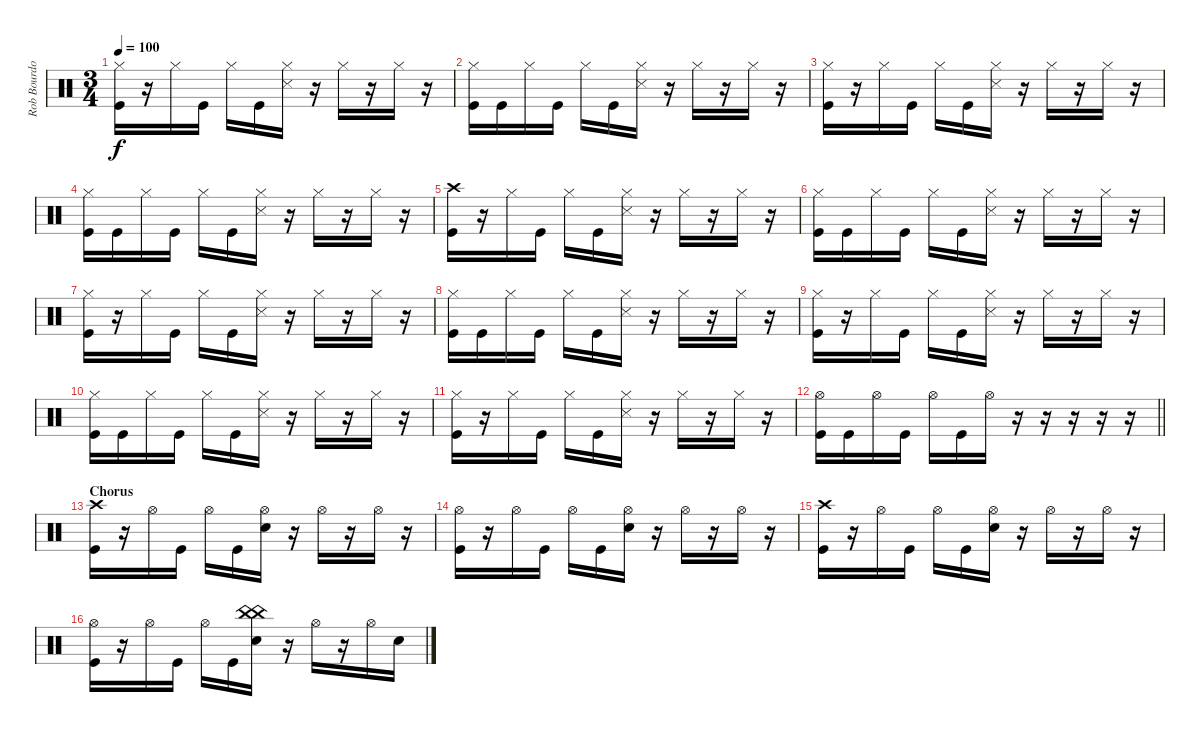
\track ("Rob Bourdon" "Rob Bourdo") {instrument percussion}
\staff {score}
\articulation defaults
\ts (3 4)
\tempo 100
\clef neutral
\ks c
("Hi-Hat (closed)" "Kick (hit)").16{dy f} r.16 "Hi-Hat (closed)".16 "Kick (hit)".16 "Hi-Hat (closed)".16 "Kick (hit)".16 ("Hi-Hat (closed)" "Snare (side stick) 3").16 r.16 "Hi-Hat (closed)".16 r.16 "Hi-Hat (closed)".16 r.16 |
("Hi-Hat (closed)" "Kick (hit)").16 "Kick (hit)".16 "Hi-Hat (closed)".16 "Kick (hit)".16 "Hi-Hat (closed)".16 "Kick (hit)".16 ("Hi-Hat (closed)" "Snare (side stick) 3").16 r.16 "Hi-Hat (closed)".16 r.16 "Hi-Hat (closed)".16 r.16 |
("Hi-Hat (closed)" "Kick (hit)").16 r.16 "Hi-Hat (closed)".16 "Kick (hit)".16 "Hi-Hat (closed)".16 "Kick (hit)".16 ("Hi-Hat (closed)" "Snare (side stick) 3").16 r.16 "Hi-Hat (closed)".16 r.16 "Hi-Hat (closed)".16 r.16 |
("Hi-Hat (closed)" "Kick (hit)").16 "Kick (hit)".16 "Hi-Hat (closed)".16 "Kick (hit)".16 "Hi-Hat (closed)".16 "Kick (hit)".16 ("Hi-Hat (closed)" "Snare (side stick) 3").16 r.16 "Hi-Hat (closed)".16 r.16 "Hi-Hat (closed)".16 r.16 |
("Crash high (hit)" "Kick (hit)").16 r.16 "Hi-Hat (closed)".16 "Kick (hit)".16 "Hi-Hat (closed)".16 "Kick (hit)".16 ("Hi-Hat (closed)" "Snare (side stick) 3").16 r.16 "Hi-Hat (closed)".16 r.16 "Hi-Hat (closed)".16 r.16 |
("Hi-Hat (closed)" "Kick (hit)").16 "Kick (hit)".16 "Hi-Hat (closed)".16 "Kick (hit)".16 "Hi-Hat (closed)".16 "Kick (hit)".16 ("Hi-Hat (closed)" "Snare (side stick) 3").16 r.16 "Hi-Hat (closed)".16 r.16 "Hi-Hat (closed)".16 r.16 |
("Hi-Hat (closed)" "Kick (hit)").16 r.16 "Hi-Hat (closed)".16 "Kick (hit)".16 "Hi-Hat (closed)".16 "Kick (hit)".16 ("Hi-Hat (closed)" "Snare (side stick) 3").16 r.16 "Hi-Hat (closed)".16 r.16 "Hi-Hat (closed)".16 r.16 |
("Hi-Hat (closed)" "Kick (hit)").16 "Kick (hit)".16 "Hi-Hat (closed)".16 "Kick (hit)".16 "Hi-Hat (closed)".16 "Kick (hit)".16 ("Hi-Hat (closed)" "Snare (side stick) 3").16 r.16 "Hi-Hat (closed)".16 r.16 "Hi-Hat (closed)".16 r.16 |
("Hi-Hat (closed)" "Kick (hit)").16 r.16 "Hi-Hat (closed)".16 "Kick (hit)".16 "Hi-Hat (closed)".16 "Kick (hit)".16 ("Hi-Hat (closed)" "Snare (side stick) 3").16 r.16 "Hi-Hat (closed)".16 r.16 "Hi-Hat (closed)".16 r.16 |
("Hi-Hat (closed)" "Kick (hit)").16 "Kick (hit)".16 "Hi-Hat (closed)".16 "Kick (hit)".16 "Hi-Hat (closed)".16 "Kick (hit)".16 ("Hi-Hat (closed)" "Snare (side stick) 3").16 r.16 "Hi-Hat (closed)".16 r.16 "Hi-Hat (closed)".16 r.16 |
("Hi-Hat (closed)" "Kick (hit)").16 r.16 "Hi-Hat (closed)".16 "Kick (hit)".16 "Hi-Hat (closed)".16 "Kick (hit)".16 ("Hi-Hat (closed)" "Snare (side stick) 3").16 r.16 "Hi-Hat (closed)".16 r.16 "Hi-Hat (closed)".16 r.16 |
\barLineRight lightlight
("Hi-Hat (open)" "Kick (hit)").16 "Kick (hit)".16 "Hi-Hat (open)".16 "Kick (hit)".16 "Hi-Hat (open)".16 "Kick (hit)".16 "Hi-Hat (open)".16 r.16 r.16 r.16 r.16 r.16 |
\section ("" "Chorus")
("Crash high (hit)" "Kick (hit)").16 r.16 "Hi-Hat (open)".16 "Kick (hit)".16 "Hi-Hat (open)".16 "Kick (hit)".16 ("Hi-Hat (open)" "Snare (hit) 2").16 r.16 "Hi-Hat (open)".16 r.16 "Hi-Hat (open)".16 r.16 |
("Hi-Hat (open)" "Kick (hit)").16 r.16 "Hi-Hat (open)".16 "Kick (hit)".16 "Hi-Hat (open)".16 "Kick (hit)".16 ("Hi-Hat (open)" "Snare (hit) 2").16 r.16 "Hi-Hat (open)".16 r.16 "Hi-Hat (open)".16 r.16 |
("Crash high (hit)" "Kick (hit)").16 r.16 "Hi-Hat (open)".16 "Kick (hit)".16 "Hi-Hat (open)".16 "Kick (hit)".16 ("Hi-Hat (open)" "Snare (hit) 2").16 r.16 "Hi-Hat (open)".16 r.16 "Hi-Hat (open)".16 r.16 |
("Hi-Hat (open)" "Kick (hit)").16 r.16 "Hi-Hat (open)".16 "Kick (hit)".16 "Hi-Hat (open)".16 "Kick (hit)".16 ("China (hit)" "China (hit)" "Snare (hit) 2").16 r.16 "Hi-Hat (open)".16 r.16 "Hi-Hat (open)".16 "Snare (hit) 2".16
